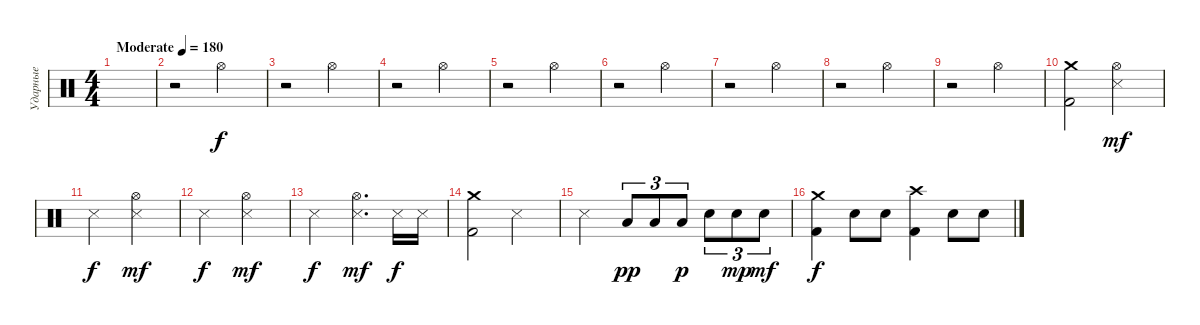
\track ("Ударные" "Ударные") {instrument percussion}
\staff {score}
\articulation defaults
\ts (4 4)
\tempo (180 "Moderate")
\clef neutral
\ks c
|
r.2 "Hi-Hat (open)".2 |
r.2 "Hi-Hat (open)".2 |
r.2 "Hi-Hat (open)".2 |
r.2 "Hi-Hat (open)".2 |
r.2 "Hi-Hat (open)".2 |
r.2 "Hi-Hat (open)".2 |
r.2 "Hi-Hat (open)".2 |
r.2 "Hi-Hat (open)".2 |
("Kick (hit) 2" "Crash medium (hit)").2 ("Hi-Hat (open)" "Snare (side stick) 3").2{dy mf} |
"Snare (side stick) 3".2{dy f} ("Hi-Hat (open)" "Snare (side stick) 3").2{dy mf} |
"Snare (side stick) 3".2{dy f} ("Hi-Hat (open)" "Snare (side stick) 3").2{dy mf} |
"Snare (side stick) 3".2{dy f} ("Hi-Hat (open)" "Snare (side stick) 3").4{d dy mf} "Snare (side stick) 3".16{dy f} "Snare (side stick) 3".16 |
("Kick (hit) 2" "Crash medium (hit)").2 "Snare (side stick) 3".2 |
"Snare (side stick) 3".2 "Low Tom (hit)".8{tu (3 2) dy pp} "Low Tom (hit)".8{tu (3 2)} "Low Tom (hit)".8{tu (3 2) dy p} "Snare (hit) 2".8{tu (3 2)} "Snare (hit) 2".8{tu (3 2) dy mp} "Snare (hit) 2".8{tu (3 2) dy mf} |
("Kick (hit) 2" "Crash medium (hit)").4{dy f} "Snare (hit) 2".8 "Snare (hit) 2".8 ("Crash high (hit)" "Kick (hit) 2").4 "Snare (hit) 2".8 "Snare (hit) 2".8
